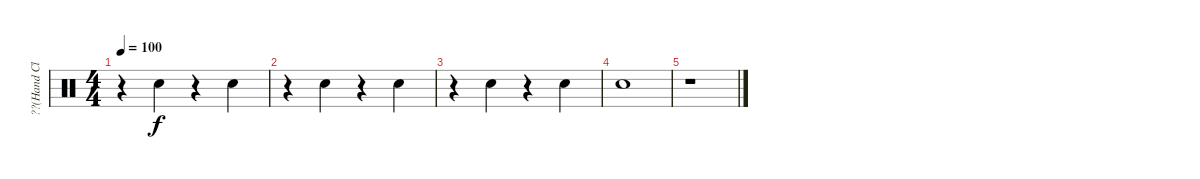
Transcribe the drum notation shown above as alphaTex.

\track ("??(Hand Clap)" "??(Hand Cl") {instrument percussion}
\staff {score}
\articulation defaults
\ts (4 4)
\tempo 100
\clef neutral
\ks c
r.4{dy f} "Hand Clap (hit)".4 r.4 "Hand Clap (hit)".4 |
r.4 "Hand Clap (hit)".4 r.4 "Hand Clap (hit)".4 |
r.4 "Hand Clap (hit)".4 r.4 "Hand Clap (hit)".4 |
"Hand Clap (hit)".1 |
r.1
